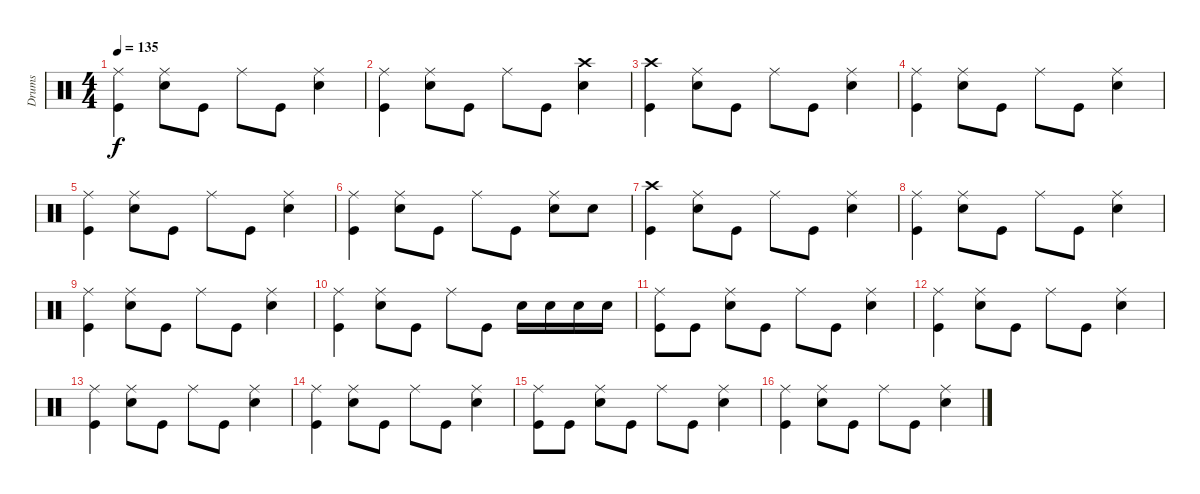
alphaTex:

\track ("Drums" "Drums") {instrument percussion}
\staff {score}
\articulation defaults
\ts (4 4)
\tempo 135
\clef neutral
\ks c
("Ride (middle)" "Kick (hit)").4{dy f} ("Ride (middle)" "Snare (hit) 2").8 "Kick (hit)".8 "Ride (middle)".8 "Kick (hit)".8 ("Ride (middle)" "Snare (hit) 2").4 |
("Ride (middle)" "Kick (hit)").4 ("Ride (middle)" "Snare (hit) 2").8 "Kick (hit)".8 "Ride (middle)".8 "Kick (hit)".8 ("Crash high (hit)" "Snare (hit) 2").4 |
("Crash high (hit)" "Kick (hit)").4 ("Ride (middle)" "Snare (hit) 2").8 "Kick (hit)".8 "Ride (middle)".8 "Kick (hit)".8 ("Ride (middle)" "Snare (hit) 2").4 |
("Ride (middle)" "Kick (hit)").4 ("Ride (middle)" "Snare (hit) 2").8 "Kick (hit)".8 "Ride (middle)".8 "Kick (hit)".8 ("Ride (middle)" "Snare (hit) 2").4 |
("Ride (middle)" "Kick (hit)").4 ("Ride (middle)" "Snare (hit) 2").8 "Kick (hit)".8 "Ride (middle)".8 "Kick (hit)".8 ("Ride (middle)" "Snare (hit) 2").4 |
("Ride (middle)" "Kick (hit)").4 ("Ride (middle)" "Snare (hit) 2").8 "Kick (hit)".8 "Ride (middle)".8 "Kick (hit)".8 ("Ride (middle)" "Snare (hit) 2").8 "Snare (hit) 2".8 |
("Crash high (hit)" "Kick (hit)").4 ("Ride (middle)" "Snare (hit) 2").8 "Kick (hit)".8 "Ride (middle)".8 "Kick (hit)".8 ("Ride (middle)" "Snare (hit) 2").4 |
("Ride (middle)" "Kick (hit)").4 ("Ride (middle)" "Snare (hit) 2").8 "Kick (hit)".8 "Ride (middle)".8 "Kick (hit)".8 ("Ride (middle)" "Snare (hit) 2").4 |
("Ride (middle)" "Kick (hit)").4 ("Ride (middle)" "Snare (hit) 2").8 "Kick (hit)".8 "Ride (middle)".8 "Kick (hit)".8 ("Ride (middle)" "Snare (hit) 2").4 |
("Ride (middle)" "Kick (hit)").4 ("Ride (middle)" "Snare (hit) 2").8 "Kick (hit)".8 "Ride (middle)".8 "Kick (hit)".8 "Snare (hit) 2".16 "Snare (hit) 2".16 "Snare (hit) 2".16 "Snare (hit) 2".16 |
("Ride (middle)" "Kick (hit)").8 "Kick (hit)".8 ("Ride (middle)" "Snare (hit) 2").8 "Kick (hit)".8 "Ride (middle)".8 "Kick (hit)".8 ("Ride (middle)" "Snare (hit) 2").4 |
("Ride (middle)" "Kick (hit)").4 ("Ride (middle)" "Snare (hit) 2").8 "Kick (hit)".8 "Ride (middle)".8 "Kick (hit)".8 ("Ride (middle)" "Snare (hit) 2").4 |
("Ride (middle)" "Kick (hit)").4 ("Ride (middle)" "Snare (hit) 2").8 "Kick (hit)".8 "Ride (middle)".8 "Kick (hit)".8 ("Ride (middle)" "Snare (hit) 2").4 |
("Ride (middle)" "Kick (hit)").4 ("Ride (middle)" "Snare (hit) 2").8 "Kick (hit)".8 "Ride (middle)".8 "Kick (hit)".8 ("Ride (middle)" "Snare (hit) 2").4 |
("Ride (middle)" "Kick (hit)").8 "Kick (hit)".8 ("Ride (middle)" "Snare (hit) 2").8 "Kick (hit)".8 "Ride (middle)".8 "Kick (hit)".8 ("Ride (middle)" "Snare (hit) 2").4 |
("Ride (middle)" "Kick (hit)").4 ("Ride (middle)" "Snare (hit) 2").8 "Kick (hit)".8 "Ride (middle)".8 "Kick (hit)".8 ("Ride (middle)" "Snare (hit) 2").4
